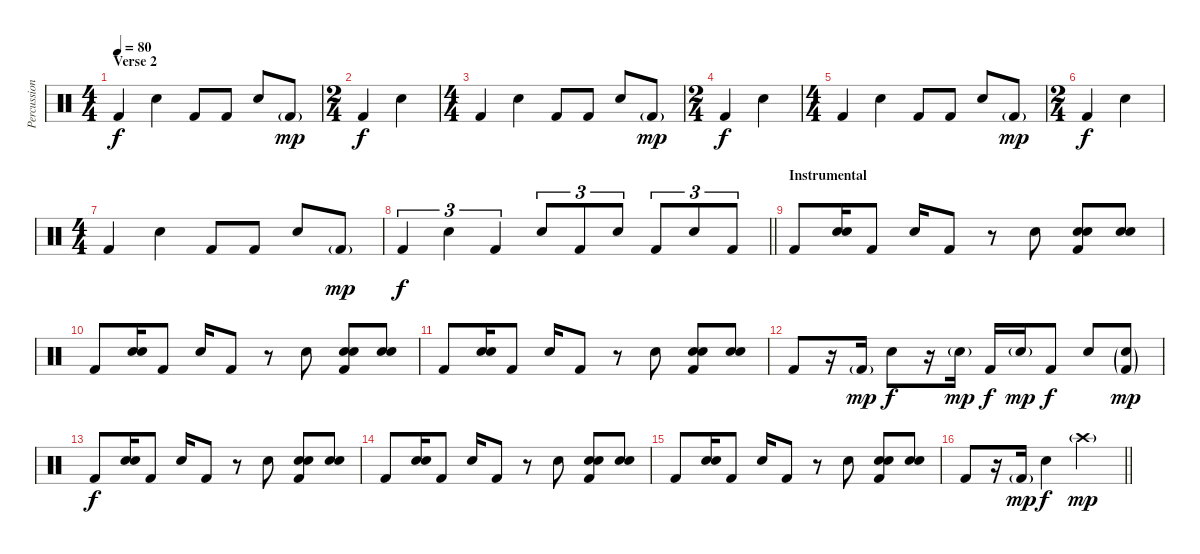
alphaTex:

\track ("Percussion" "Percussion") {instrument percussion}
\staff {score}
\articulation defaults
\ts (4 4)
\section ("" "Verse 2")
\tempo 80
\clef neutral
\ks c "Kick (hit) 2".4{dy f} "Snare (hit) 2".4 "Kick (hit) 2".8 "Kick (hit) 2".8 "Snare (hit) 2".8 "Kick (hit) 2"{g}.8{dy mp}
|
\ts (2 4)
"Kick (hit) 2".4{dy f} "Snare (hit) 2".4 |
\ts (4 4)
"Kick (hit) 2".4 "Snare (hit) 2".4 "Kick (hit) 2".8 "Kick (hit) 2".8 "Snare (hit) 2".8 "Kick (hit) 2"{g}.8{dy mp} |
\ts (2 4)
"Kick (hit) 2".4{dy f} "Snare (hit) 2".4 |
\ts (4 4)
"Kick (hit) 2".4 "Snare (hit) 2".4 "Kick (hit) 2".8 "Kick (hit) 2".8 "Snare (hit) 2".8 "Kick (hit) 2"{g}.8{dy mp} |
\ts (2 4)
"Kick (hit) 2".4{dy f} "Snare (hit) 2".4 |
\ts (4 4)
"Kick (hit) 2".4 "Snare (hit) 2".4 "Kick (hit) 2".8 "Kick (hit) 2".8 "Snare (hit) 2".8 "Kick (hit) 2"{g}.8{dy mp} |
\barLineRight lightlight "Kick (hit) 2".4{tu (3 2) dy f} "Snare (hit) 2".4{tu (3 2)} "Kick (hit) 2".4{tu (3 2)} "Snare (hit) 2".8{tu (3 2)} "Kick (hit) 2".8{tu (3 2)} "Snare (hit) 2".8{tu (3 2)} "Kick (hit) 2".8{tu (3 2)} "Snare (hit) 2".8{tu (3 2)} "Kick (hit) 2".8{tu (3 2)}
|
\section ("" "Instrumental")
"Kick (hit) 2".8 ("Hand Clap (hit)" "Snare (hit) 2").16 "Kick (hit) 2".8 "Snare (hit) 2".16 "Kick (hit) 2".8 r.8 "Snare (hit) 2".8 ("Hand Clap (hit)" "Snare (hit) 2" "Kick (hit) 2").8 ("Hand Clap (hit)" "Snare (hit) 2").8 |
"Kick (hit) 2".8 ("Hand Clap (hit)" "Snare (hit) 2").16 "Kick (hit) 2".8 "Snare (hit) 2".16 "Kick (hit) 2".8 r.8 "Snare (hit) 2".8 ("Hand Clap (hit)" "Snare (hit) 2" "Kick (hit) 2").8 ("Hand Clap (hit)" "Snare (hit) 2").8 |
"Kick (hit) 2".8 ("Hand Clap (hit)" "Snare (hit) 2").16 "Kick (hit) 2".8 "Snare (hit) 2".16 "Kick (hit) 2".8 r.8 "Snare (hit) 2".8 ("Hand Clap (hit)" "Snare (hit) 2" "Kick (hit) 2").8 ("Hand Clap (hit)" "Snare (hit) 2").8 |
"Kick (hit) 2".8 r.16 "Kick (hit) 2"{g}.16{dy mp} "Snare (hit) 2".8{dy f} r.16 "Snare (hit) 2"{g}.16{dy mp} "Kick (hit) 2".16{dy f} "Snare (hit) 2"{g}.16{dy mp} "Kick (hit) 2".8{dy f} "Snare (hit) 2".8 ("Snare (hit) 2"{g} "Kick (hit) 2"{g}).8{dy mp} |
"Kick (hit) 2".8{dy f} ("Hand Clap (hit)" "Snare (hit) 2").16 "Kick (hit) 2".8 "Snare (hit) 2".16 "Kick (hit) 2".8 r.8 "Snare (hit) 2".8 ("Hand Clap (hit)" "Snare (hit) 2" "Kick (hit) 2").8 ("Hand Clap (hit)" "Snare (hit) 2").8 |
"Kick (hit) 2".8 ("Hand Clap (hit)" "Snare (hit) 2").16 "Kick (hit) 2".8 "Snare (hit) 2".16 "Kick (hit) 2".8 r.8 "Snare (hit) 2".8 ("Hand Clap (hit)" "Snare (hit) 2" "Kick (hit) 2").8 ("Hand Clap (hit)" "Snare (hit) 2").8 |
"Kick (hit) 2".8 ("Hand Clap (hit)" "Snare (hit) 2").16 "Kick (hit) 2".8 "Snare (hit) 2".16 "Kick (hit) 2".8 r.8 "Snare (hit) 2".8 ("Hand Clap (hit)" "Snare (hit) 2" "Kick (hit) 2").8 ("Hand Clap (hit)" "Snare (hit) 2").8 |
\barLineRight lightlight "Kick (hit) 2".8
r.16 "Kick (hit) 2"{g}.16{dy mp} "Snare (hit) 2".4{dy f} "Crash high (hit)"{g}.2{dy mp}
